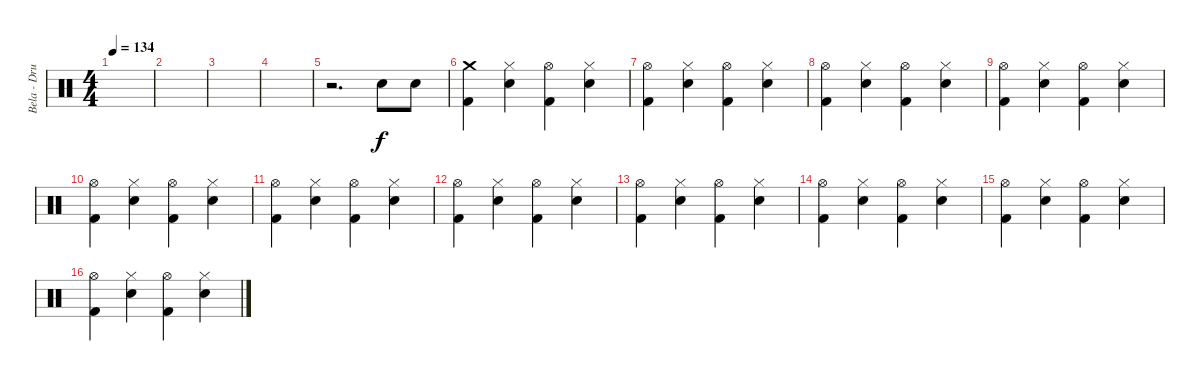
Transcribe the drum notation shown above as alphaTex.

\track ("Bela - Drums" "Bela - Dru") {instrument percussion}
\staff {score}
\articulation defaults
\ts (4 4)
\tempo 134
\clef neutral
\ks c
|
|
|
|
r.2{d} "Electric Snare (hit)".8 "Electric Snare (hit)".8 |
("Crash medium (hit)" "Kick (hit) 2").4 ("Hi-Hat (closed)" "Electric Snare (hit)").4 ("Hi-Hat (open)" "Kick (hit) 2").4 ("Hi-Hat (closed)" "Electric Snare (hit)").4 |
("Hi-Hat (open)" "Kick (hit) 2").4 ("Hi-Hat (closed)" "Electric Snare (hit)").4 ("Hi-Hat (open)" "Kick (hit) 2").4 ("Hi-Hat (closed)" "Electric Snare (hit)").4 |
("Hi-Hat (open)" "Kick (hit) 2").4 ("Hi-Hat (closed)" "Electric Snare (hit)").4 ("Hi-Hat (open)" "Kick (hit) 2").4 ("Hi-Hat (closed)" "Electric Snare (hit)").4 |
("Hi-Hat (open)" "Kick (hit) 2").4 ("Hi-Hat (closed)" "Electric Snare (hit)").4 ("Hi-Hat (open)" "Kick (hit) 2").4 ("Hi-Hat (closed)" "Electric Snare (hit)").4 |
("Hi-Hat (open)" "Kick (hit) 2").4 ("Hi-Hat (closed)" "Electric Snare (hit)").4 ("Hi-Hat (open)" "Kick (hit) 2").4 ("Hi-Hat (closed)" "Electric Snare (hit)").4 |
("Hi-Hat (open)" "Kick (hit) 2").4 ("Hi-Hat (closed)" "Electric Snare (hit)").4 ("Hi-Hat (open)" "Kick (hit) 2").4 ("Hi-Hat (closed)" "Electric Snare (hit)").4 |
("Hi-Hat (open)" "Kick (hit) 2").4 ("Hi-Hat (closed)" "Electric Snare (hit)").4 ("Hi-Hat (open)" "Kick (hit) 2").4 ("Hi-Hat (closed)" "Electric Snare (hit)").4 |
("Hi-Hat (open)" "Kick (hit) 2").4 ("Hi-Hat (closed)" "Electric Snare (hit)").4 ("Hi-Hat (open)" "Kick (hit) 2").4 ("Hi-Hat (closed)" "Electric Snare (hit)").4 |
("Hi-Hat (open)" "Kick (hit) 2").4 ("Hi-Hat (closed)" "Electric Snare (hit)").4 ("Hi-Hat (open)" "Kick (hit) 2").4 ("Hi-Hat (closed)" "Electric Snare (hit)").4 |
("Hi-Hat (open)" "Kick (hit) 2").4 ("Hi-Hat (closed)" "Electric Snare (hit)").4 ("Hi-Hat (open)" "Kick (hit) 2").4 ("Hi-Hat (closed)" "Electric Snare (hit)").4 |
("Hi-Hat (open)" "Kick (hit) 2").4 ("Hi-Hat (closed)" "Electric Snare (hit)").4 ("Hi-Hat (open)" "Kick (hit) 2").4 ("Hi-Hat (closed)" "Electric Snare (hit)").4
